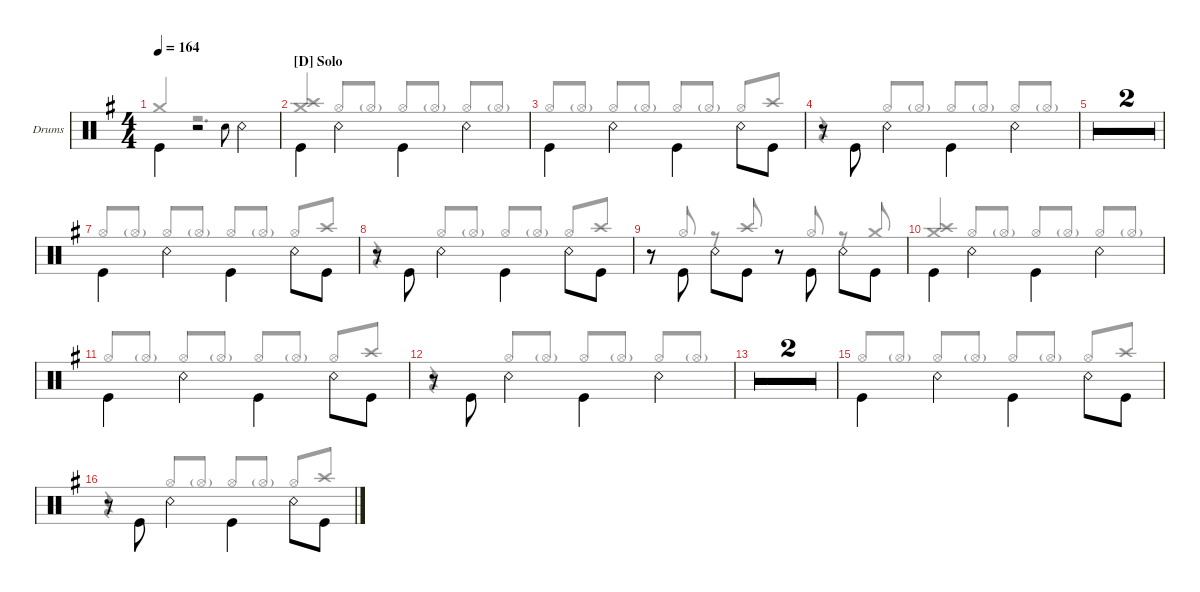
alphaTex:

\defaultSystemsLayout 4
\hideDynamics
\bracketExtendMode groupsimilarinstruments
\firstSystemTrackNameOrientation horizontal
\otherSystemsTrackNameOrientation horizontal
\track ("Drumkit" "Drums") {multiBarRest instrument percussion}
\staff {score}
\articulation defaults
\voice
\ts (4 4)
\tempo 164
\clef neutral
\ks eminor "Kick (hit)".4{dy ff beam invert}
r.2 "Snare (hit) 2".8{gr onbeat beam invert} "Snare (rim shot)".4{beam invert} |
\section ("D" "Solo")
"Kick (hit)".4{beam invert} "Snare (rim shot)".4{beam invert} "Kick (hit)".4{beam invert} "Snare (rim shot)".4{beam invert} |
"Kick (hit)".4{beam invert} "Snare (rim shot)".4{beam invert} "Kick (hit)".4{beam invert} "Snare (rim shot)".8{beam invert} "Kick (hit)".8 |
r.8 "Kick (hit)".8{beam invert} "Snare (rim shot)".4{beam invert} "Kick (hit)".4{beam invert} "Snare (rim shot)".4{beam invert} |
\simile firstofdouble
|
\simile secondofdouble
|
\simile none "Kick (hit)".4{beam invert} "Snare (rim shot)".4{beam invert} "Kick (hit)".4{beam invert} "Snare (rim shot)".8{beam invert} "Kick (hit)".8
|
r.8 "Kick (hit)".8{beam invert} "Snare (rim shot)".4{beam invert} "Kick (hit)".4{beam invert} "Snare (rim shot)".8{beam invert} "Kick (hit)".8 |
r.8 "Kick (hit)".8{beam invert} "Snare (rim shot)".8{beam invert} "Kick (hit)".8 r.8{beam invert} "Kick (hit)".8{beam invert} "Snare (rim shot)".8{beam invert} "Kick (hit)".8 |
"Kick (hit)".4{beam invert} "Snare (rim shot)".4{beam invert} "Kick (hit)".4{beam invert} "Snare (rim shot)".4{beam invert} |
"Kick (hit)".4{beam invert} "Snare (rim shot)".4{beam invert} "Kick (hit)".4{beam invert} "Snare (rim shot)".8{beam invert} "Kick (hit)".8 |
r.8 "Kick (hit)".8{beam invert} "Snare (rim shot)".4{beam invert} "Kick (hit)".4{beam invert} "Snare (rim shot)".4{beam invert} |
\simile firstofdouble
|
\simile secondofdouble
|
\simile none "Kick (hit)".4{beam invert} "Snare (rim shot)".4{beam invert} "Kick (hit)".4{beam invert} "Snare (rim shot)".8{beam invert} "Kick (hit)".8
|
r.8 "Kick (hit)".8{beam invert} "Snare (rim shot)".4{beam invert} "Kick (hit)".4{beam invert} "Snare (rim shot)".8{beam invert} "Kick (hit)".8
\voice
\clef neutral
\ottava regular
\simile none
\ks eminor "Crash medium (hit)".4{dy f beam invert}
r.2{d} |
("Crash medium (hit)" "Crash high (hit)").4{beam invert} "Hi-Hat (open)".8{beam invert} "Hi-Hat (open)"{g}.8 "Hi-Hat (open)".8{beam invert} "Hi-Hat (open)"{g}.8 "Hi-Hat (open)".8{beam invert} "Hi-Hat (open)"{g}.8 |
"Hi-Hat (open)".8{beam invert} "Hi-Hat (open)"{g}.8 "Hi-Hat (open)".8{beam invert} "Hi-Hat (open)"{g}.8 "Hi-Hat (open)".8{beam invert} "Hi-Hat (open)"{g}.8 "Hi-Hat (open)".8{beam invert} "Crash high (hit)".8 |
r.4 "Hi-Hat (open)".8{beam invert} "Hi-Hat (open)"{g}.8 "Hi-Hat (open)".8{beam invert} "Hi-Hat (open)"{g}.8 "Hi-Hat (open)".8{beam invert} "Hi-Hat (open)"{g}.8 |
\simile firstofdouble
|
\simile secondofdouble
|
\simile none "Hi-Hat (open)".8{beam invert} "Hi-Hat (open)"{g}.8 "Hi-Hat (open)".8{beam invert} "Hi-Hat (open)"{g}.8 "Hi-Hat (open)".8{beam invert} "Hi-Hat (open)"{g}.8 "Hi-Hat (open)".8{beam invert} "Crash high (hit)".8
|
r.4 "Hi-Hat (open)".8{beam invert} "Hi-Hat (open)"{g}.8 "Hi-Hat (open)".8{beam invert} "Hi-Hat (open)"{g}.8 "Hi-Hat (open)".8{beam invert} "Crash high (hit)".8 |
r.8{beam invert} "Hi-Hat (open)".8{beam invert} r.8{beam invert} "Crash high (hit)".8{beam invert} r.8{beam invert} "Hi-Hat (open)".8{beam invert} r.8{beam invert} "Crash medium (hit)".8{beam invert} |
("Crash medium (hit)" "Crash high (hit)").4{beam invert} "Hi-Hat (open)".8{beam invert} "Hi-Hat (open)"{g}.8 "Hi-Hat (open)".8{beam invert} "Hi-Hat (open)"{g}.8 "Hi-Hat (open)".8{beam invert} "Hi-Hat (open)"{g}.8 |
"Hi-Hat (open)".8{beam invert} "Hi-Hat (open)"{g}.8 "Hi-Hat (open)".8{beam invert} "Hi-Hat (open)"{g}.8 "Hi-Hat (open)".8{beam invert} "Hi-Hat (open)"{g}.8 "Hi-Hat (open)".8{beam invert} "Crash high (hit)".8 |
r.4 "Hi-Hat (open)".8{beam invert} "Hi-Hat (open)"{g}.8 "Hi-Hat (open)".8{beam invert} "Hi-Hat (open)"{g}.8 "Hi-Hat (open)".8{beam invert} "Hi-Hat (open)"{g}.8 |
\simile firstofdouble
|
\simile secondofdouble
|
\simile none "Hi-Hat (open)".8{beam invert} "Hi-Hat (open)"{g}.8 "Hi-Hat (open)".8{beam invert} "Hi-Hat (open)"{g}.8 "Hi-Hat (open)".8{beam invert} "Hi-Hat (open)"{g}.8 "Hi-Hat (open)".8{beam invert} "Crash high (hit)".8
|
r.4 "Hi-Hat (open)".8{beam invert} "Hi-Hat (open)"{g}.8 "Hi-Hat (open)".8{beam invert} "Hi-Hat (open)"{g}.8 "Hi-Hat (open)".8{beam invert} "Crash high (hit)".8
